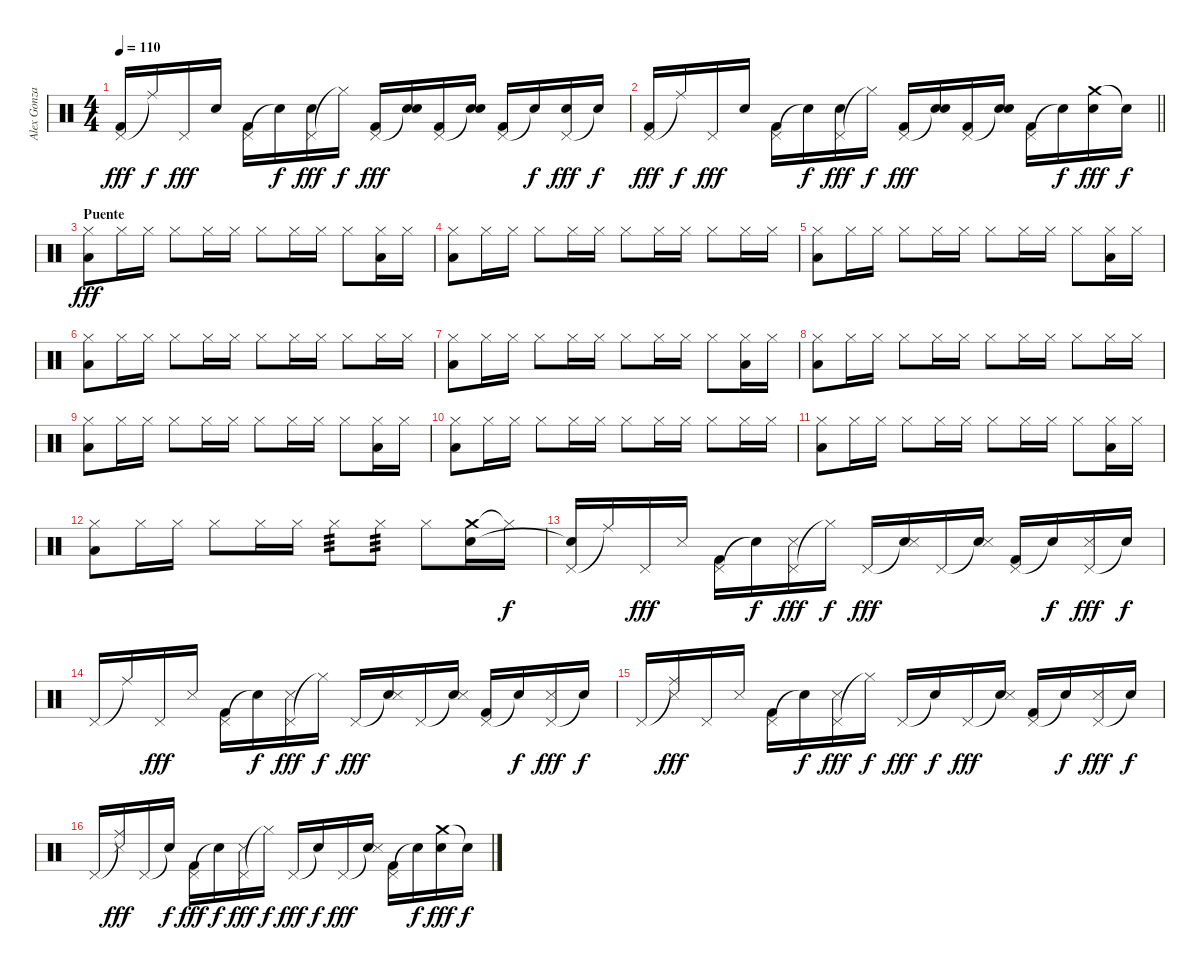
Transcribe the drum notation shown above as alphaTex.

\track ("Alex Gonzalez" "Alex Gonza") {instrument percussion}
\staff {score}
\articulation defaults
\ts (4 4)
\tempo 110
\clef neutral
\ks c
("Pedal Hi-Hat (hit)" "Kick (hit) 2").16{dy fff} "Ride (middle)"{t}.16{dy f} "Pedal Hi-Hat (hit)".16{dy fff} "Electric Snare (hit)".16 ("Pedal Hi-Hat (hit)" "Kick (hit) 2").16 "Snare (hit)"{t}.16{dy f} ("Pedal Hi-Hat (hit)" "Electric Snare (hit)").16{dy fff} "Hi-Hat (closed)"{t}.16{dy f} ("Pedal Hi-Hat (hit)" "Kick (hit) 2").16{dy fff} ("Snare (hit)"{t} "Electric Snare (hit)").16 ("Pedal Hi-Hat (hit)" "Kick (hit) 2").16 ("Snare (hit)"{t} "Electric Snare (hit)").16 ("Pedal Hi-Hat (hit)" "Kick (hit) 2").16 "Snare (hit)"{t}.16{dy f} ("Pedal Hi-Hat (hit)" "Electric Snare (hit)").16{dy fff} "Snare (hit)"{t}.16{dy f} |
\barLineRight lightlight
("Pedal Hi-Hat (hit)" "Kick (hit) 2").16{dy fff} "Ride (middle)"{t}.16{dy f} "Pedal Hi-Hat (hit)".16{dy fff} "Electric Snare (hit)".16 ("Pedal Hi-Hat (hit)" "Kick (hit) 2").16 "Snare (hit)"{t}.16{dy f} ("Pedal Hi-Hat (hit)" "Electric Snare (hit)").16{dy fff} "Hi-Hat (closed)"{t}.16{dy f} ("Pedal Hi-Hat (hit)" "Kick (hit) 2").16{dy fff} ("Snare (hit)"{t} "Electric Snare (hit)").16 ("Pedal Hi-Hat (hit)" "Kick (hit) 2").16 ("Snare (hit)"{t} "Electric Snare (hit)").16 ("Pedal Hi-Hat (hit)" "Kick (hit) 2").16 "Snare (hit)"{t}.16{dy f} ("Crash medium (hit)" "Electric Snare (hit)").16{dy fff} "Snare (hit)"{t}.16{dy f} |
\section ("" "Puente")
("Hi-Hat (closed)" "Low Tom (hit)").8{dy fff} "Hi-Hat (closed)".16 "Hi-Hat (closed)".16 "Hi-Hat (closed)".8 "Hi-Hat (closed)".16 "Hi-Hat (closed)".16 "Hi-Hat (closed)".8 "Hi-Hat (closed)".16 "Hi-Hat (closed)".16 "Hi-Hat (closed)".8 ("Hi-Hat (closed)" "Low Tom (hit)").16 "Hi-Hat (closed)".16 |
("Hi-Hat (closed)" "Low Tom (hit)").8 "Hi-Hat (closed)".16 "Hi-Hat (closed)".16 "Hi-Hat (closed)".8 "Hi-Hat (closed)".16 "Hi-Hat (closed)".16 "Hi-Hat (closed)".8 "Hi-Hat (closed)".16 "Hi-Hat (closed)".16 "Hi-Hat (closed)".8 "Hi-Hat (closed)".16 "Hi-Hat (closed)".16 |
("Hi-Hat (closed)" "Low Tom (hit)").8 "Hi-Hat (closed)".16 "Hi-Hat (closed)".16 "Hi-Hat (closed)".8 "Hi-Hat (closed)".16 "Hi-Hat (closed)".16 "Hi-Hat (closed)".8 "Hi-Hat (closed)".16 "Hi-Hat (closed)".16 "Hi-Hat (closed)".8 ("Hi-Hat (closed)" "Low Tom (hit)").16 "Hi-Hat (closed)".16 |
("Hi-Hat (closed)" "Low Tom (hit)").8 "Hi-Hat (closed)".16 "Hi-Hat (closed)".16 "Hi-Hat (closed)".8 "Hi-Hat (closed)".16 "Hi-Hat (closed)".16 "Hi-Hat (closed)".8 "Hi-Hat (closed)".16 "Hi-Hat (closed)".16 "Hi-Hat (closed)".8 "Hi-Hat (closed)".16 "Hi-Hat (closed)".16 |
("Hi-Hat (closed)" "Low Tom (hit)").8 "Hi-Hat (closed)".16 "Hi-Hat (closed)".16 "Hi-Hat (closed)".8 "Hi-Hat (closed)".16 "Hi-Hat (closed)".16 "Hi-Hat (closed)".8 "Hi-Hat (closed)".16 "Hi-Hat (closed)".16 "Hi-Hat (closed)".8 ("Hi-Hat (closed)" "Low Tom (hit)").16 "Hi-Hat (closed)".16 |
("Hi-Hat (closed)" "Low Tom (hit)").8 "Hi-Hat (closed)".16 "Hi-Hat (closed)".16 "Hi-Hat (closed)".8 "Hi-Hat (closed)".16 "Hi-Hat (closed)".16 "Hi-Hat (closed)".8 "Hi-Hat (closed)".16 "Hi-Hat (closed)".16 "Hi-Hat (closed)".8 "Hi-Hat (closed)".16 "Hi-Hat (closed)".16 |
("Hi-Hat (closed)" "Low Tom (hit)").8 "Hi-Hat (closed)".16 "Hi-Hat (closed)".16 "Hi-Hat (closed)".8 "Hi-Hat (closed)".16 "Hi-Hat (closed)".16 "Hi-Hat (closed)".8 "Hi-Hat (closed)".16 "Hi-Hat (closed)".16 "Hi-Hat (closed)".8 ("Hi-Hat (closed)" "Low Tom (hit)").16 "Hi-Hat (closed)".16 |
("Hi-Hat (closed)" "Low Tom (hit)").8 "Hi-Hat (closed)".16 "Hi-Hat (closed)".16 "Hi-Hat (closed)".8 "Hi-Hat (closed)".16 "Hi-Hat (closed)".16 "Hi-Hat (closed)".8 "Hi-Hat (closed)".16 "Hi-Hat (closed)".16 "Hi-Hat (closed)".8 "Hi-Hat (closed)".16 "Hi-Hat (closed)".16 |
("Hi-Hat (closed)" "Low Tom (hit)").8 "Hi-Hat (closed)".16 "Hi-Hat (closed)".16 "Hi-Hat (closed)".8 "Hi-Hat (closed)".16 "Hi-Hat (closed)".16 "Hi-Hat (closed)".8 "Hi-Hat (closed)".16 "Hi-Hat (closed)".16 "Hi-Hat (closed)".8 ("Hi-Hat (closed)" "Low Tom (hit)").16 "Hi-Hat (closed)".16 |
("Hi-Hat (closed)" "Low Tom (hit)").8 "Hi-Hat (closed)".16 "Hi-Hat (closed)".16 "Hi-Hat (closed)".8 "Hi-Hat (closed)".16 "Hi-Hat (closed)".16 "Hi-Hat (closed)".8{tp 3} "Hi-Hat (closed)".8{tp 3} "Hi-Hat (closed)".8 ("Crash medium (hit)" "Electric Snare (hit)").16 "Hi-Hat (closed)"{t}.16{dy f} |
("Pedal Hi-Hat (hit)" "Snare (hit)"{t}).16 "Ride (middle)"{t}.16 "Pedal Hi-Hat (hit)".16{dy fff} "Snare (side stick) 3".16 ("Pedal Hi-Hat (hit)" "Kick (hit) 2").16 "Snare (hit)"{t}.16{dy f} ("Pedal Hi-Hat (hit)" "Snare (side stick) 3").16{dy fff} "Hi-Hat (closed)"{t}.16{dy f} "Pedal Hi-Hat (hit)".16{dy fff} ("Snare (hit)"{t} "Snare (side stick) 3").16 "Pedal Hi-Hat (hit)".16 ("Snare (hit)"{t} "Snare (side stick) 3").16 ("Pedal Hi-Hat (hit)" "Kick (hit) 2").16 "Snare (hit)"{t}.16{dy f} ("Pedal Hi-Hat (hit)" "Snare (side stick) 3").16{dy fff} "Snare (hit)"{t}.16{dy f} |
"Pedal Hi-Hat (hit)".16 "Ride (middle)"{t}.16 "Pedal Hi-Hat (hit)".16{dy fff} "Snare (side stick) 3".16 ("Pedal Hi-Hat (hit)" "Kick (hit) 2").16 "Snare (hit)"{t}.16{dy f} ("Pedal Hi-Hat (hit)" "Snare (side stick) 3").16{dy fff} "Hi-Hat (closed)"{t}.16{dy f} "Pedal Hi-Hat (hit)".16{dy fff} ("Snare (hit)"{t} "Snare (side stick) 3").16 "Pedal Hi-Hat (hit)".16 ("Snare (hit)"{t} "Snare (side stick) 3").16 ("Pedal Hi-Hat (hit)" "Kick (hit) 2").16 "Snare (hit)"{t}.16{dy f} ("Pedal Hi-Hat (hit)" "Snare (side stick) 3").16{dy fff} "Snare (hit)"{t}.16{dy f} |
"Pedal Hi-Hat (hit)".16 ("Ride (middle)"{t} "Snare (side stick) 3").16{dy fff} "Pedal Hi-Hat (hit)".16 "Snare (side stick) 3".16 ("Pedal Hi-Hat (hit)" "Kick (hit) 2").16 "Snare (hit)"{t}.16{dy f} ("Pedal Hi-Hat (hit)" "Snare (side stick) 3").16{dy fff} "Hi-Hat (closed)"{t}.16{dy f} "Pedal Hi-Hat (hit)".16{dy fff} "Snare (hit)"{t}.16{dy f} "Pedal Hi-Hat (hit)".16{dy fff} ("Snare (hit)"{t} "Snare (side stick) 3").16 ("Pedal Hi-Hat (hit)" "Kick (hit) 2").16 "Snare (hit)"{t}.16{dy f} ("Pedal Hi-Hat (hit)" "Snare (side stick) 3").16{dy fff} "Snare (hit)"{t}.16{dy f} |
"Pedal Hi-Hat (hit)".16 ("Ride (middle)"{t} "Snare (side stick) 3").16{dy fff} "Pedal Hi-Hat (hit)".16 "Snare (hit)"{t}.16{dy f} ("Pedal Hi-Hat (hit)" "Kick (hit) 2").16{dy fff} "Snare (hit)"{t}.16{dy f} ("Pedal Hi-Hat (hit)" "Snare (side stick) 3").16{dy fff} "Hi-Hat (closed)"{t}.16{dy f} "Pedal Hi-Hat (hit)".16{dy fff} "Snare (hit)"{t}.16{dy f} "Pedal Hi-Hat (hit)".16{dy fff} ("Snare (hit)"{t} "Snare (side stick) 3").16 ("Pedal Hi-Hat (hit)" "Kick (hit) 2").16 "Snare (hit)"{t}.16{dy f} ("Crash medium (hit)" "Electric Snare (hit)").16{dy fff} "Snare (hit)"{t}.16{dy f}
